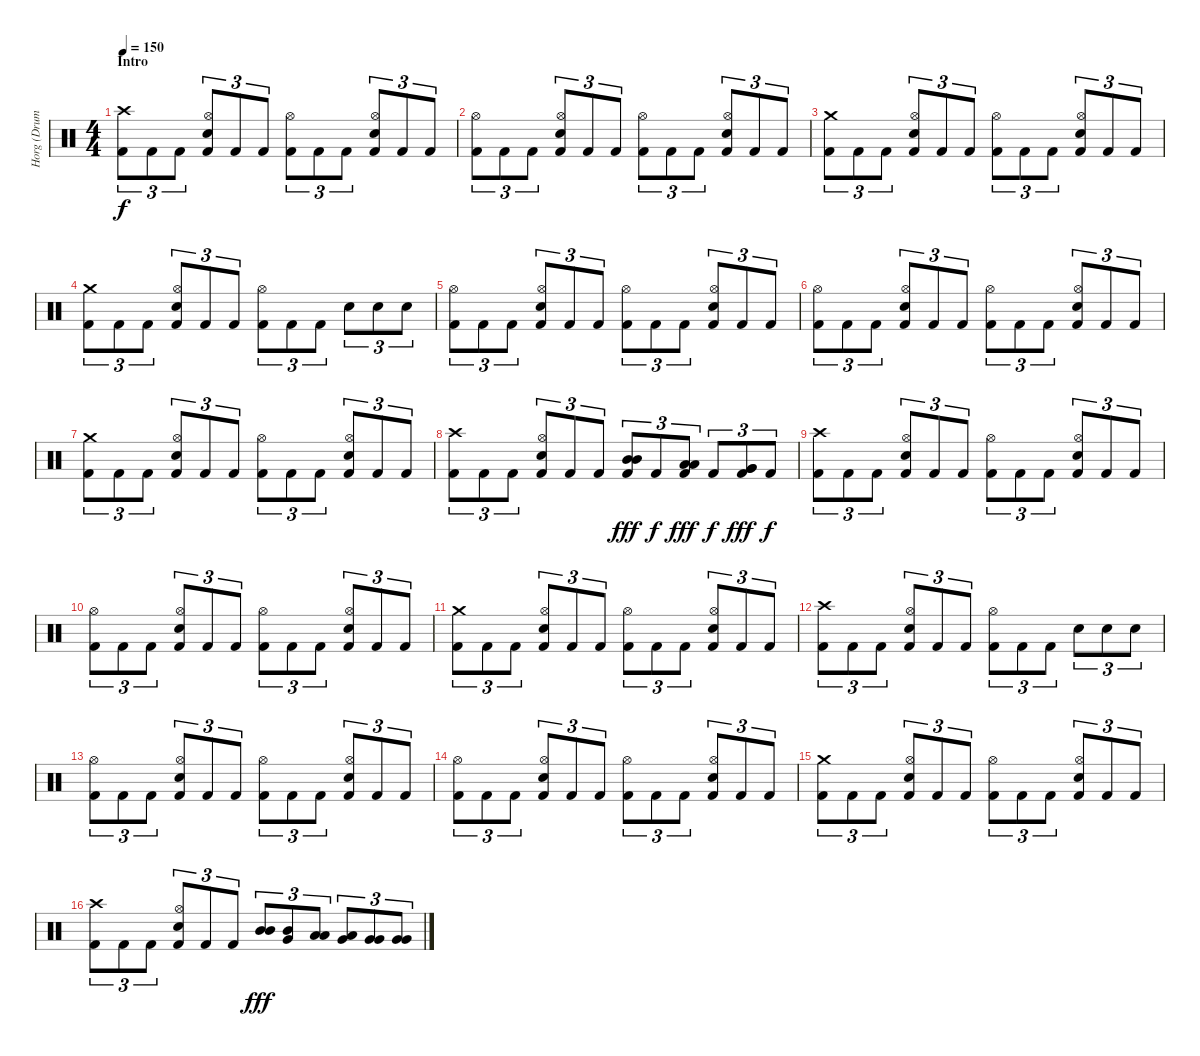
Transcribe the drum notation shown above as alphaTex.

\track ("Horg (Drums)" "Horg (Drum") {instrument percussion}
\staff {score}
\articulation defaults
\ts (4 4)
\section ("" "Intro")
\tempo 150
\clef neutral
\ks c
("Crash high (hit)" "Kick (hit) 2").8{tu (3 2) dy f} "Kick (hit) 2".8{tu (3 2)} "Kick (hit) 2".8{tu (3 2)} ("Hi-Hat (open)" "Electric Snare (hit)" "Kick (hit) 2").8{tu (3 2)} "Kick (hit) 2".8{tu (3 2)} "Kick (hit) 2".8{tu (3 2)} ("Hi-Hat (open)" "Kick (hit) 2").8{tu (3 2)} "Kick (hit) 2".8{tu (3 2)} "Kick (hit) 2".8{tu (3 2)} ("Hi-Hat (open)" "Electric Snare (hit)" "Kick (hit) 2").8{tu (3 2)} "Kick (hit) 2".8{tu (3 2)} "Kick (hit) 2".8{tu (3 2)} |
("Hi-Hat (open)" "Kick (hit) 2").8{tu (3 2)} "Kick (hit) 2".8{tu (3 2)} "Kick (hit) 2".8{tu (3 2)} ("Hi-Hat (open)" "Electric Snare (hit)" "Kick (hit) 2").8{tu (3 2)} "Kick (hit) 2".8{tu (3 2)} "Kick (hit) 2".8{tu (3 2)} ("Hi-Hat (open)" "Kick (hit) 2").8{tu (3 2)} "Kick (hit) 2".8{tu (3 2)} "Kick (hit) 2".8{tu (3 2)} ("Hi-Hat (open)" "Electric Snare (hit)" "Kick (hit) 2").8{tu (3 2)} "Kick (hit) 2".8{tu (3 2)} "Kick (hit) 2".8{tu (3 2)} |
("Crash medium (hit)" "Kick (hit) 2").8{tu (3 2)} "Kick (hit) 2".8{tu (3 2)} "Kick (hit) 2".8{tu (3 2)} ("Hi-Hat (open)" "Electric Snare (hit)" "Kick (hit) 2").8{tu (3 2)} "Kick (hit) 2".8{tu (3 2)} "Kick (hit) 2".8{tu (3 2)} ("Hi-Hat (open)" "Kick (hit) 2").8{tu (3 2)} "Kick (hit) 2".8{tu (3 2)} "Kick (hit) 2".8{tu (3 2)} ("Hi-Hat (open)" "Electric Snare (hit)" "Kick (hit) 2").8{tu (3 2)} "Kick (hit) 2".8{tu (3 2)} "Kick (hit) 2".8{tu (3 2)} |
("Crash medium (hit)" "Kick (hit) 2").8{tu (3 2)} "Kick (hit) 2".8{tu (3 2)} "Kick (hit) 2".8{tu (3 2)} ("Hi-Hat (open)" "Electric Snare (hit)" "Kick (hit) 2").8{tu (3 2)} "Kick (hit) 2".8{tu (3 2)} "Kick (hit) 2".8{tu (3 2)} ("Hi-Hat (open)" "Kick (hit) 2").8{tu (3 2)} "Kick (hit) 2".8{tu (3 2)} "Kick (hit) 2".8{tu (3 2)} "Electric Snare (hit)".8{tu (3 2)} "Electric Snare (hit)".8{tu (3 2)} "Electric Snare (hit)".8{tu (3 2)} |
("Hi-Hat (open)" "Kick (hit) 2").8{tu (3 2)} "Kick (hit) 2".8{tu (3 2)} "Kick (hit) 2".8{tu (3 2)} ("Hi-Hat (open)" "Electric Snare (hit)" "Kick (hit) 2").8{tu (3 2)} "Kick (hit) 2".8{tu (3 2)} "Kick (hit) 2".8{tu (3 2)} ("Hi-Hat (open)" "Kick (hit) 2").8{tu (3 2)} "Kick (hit) 2".8{tu (3 2)} "Kick (hit) 2".8{tu (3 2)} ("Hi-Hat (open)" "Electric Snare (hit)" "Kick (hit) 2").8{tu (3 2)} "Kick (hit) 2".8{tu (3 2)} "Kick (hit) 2".8{tu (3 2)} |
("Hi-Hat (open)" "Kick (hit) 2").8{tu (3 2)} "Kick (hit) 2".8{tu (3 2)} "Kick (hit) 2".8{tu (3 2)} ("Hi-Hat (open)" "Electric Snare (hit)" "Kick (hit) 2").8{tu (3 2)} "Kick (hit) 2".8{tu (3 2)} "Kick (hit) 2".8{tu (3 2)} ("Hi-Hat (open)" "Kick (hit) 2").8{tu (3 2)} "Kick (hit) 2".8{tu (3 2)} "Kick (hit) 2".8{tu (3 2)} ("Hi-Hat (open)" "Electric Snare (hit)" "Kick (hit) 2").8{tu (3 2)} "Kick (hit) 2".8{tu (3 2)} "Kick (hit) 2".8{tu (3 2)} |
("Crash medium (hit)" "Kick (hit) 2").8{tu (3 2)} "Kick (hit) 2".8{tu (3 2)} "Kick (hit) 2".8{tu (3 2)} ("Hi-Hat (open)" "Electric Snare (hit)" "Kick (hit) 2").8{tu (3 2)} "Kick (hit) 2".8{tu (3 2)} "Kick (hit) 2".8{tu (3 2)} ("Hi-Hat (open)" "Kick (hit) 2").8{tu (3 2)} "Kick (hit) 2".8{tu (3 2)} "Kick (hit) 2".8{tu (3 2)} ("Hi-Hat (open)" "Electric Snare (hit)" "Kick (hit) 2").8{tu (3 2)} "Kick (hit) 2".8{tu (3 2)} "Kick (hit) 2".8{tu (3 2)} |
("Crash high (hit)" "Kick (hit) 2").8{tu (3 2)} "Kick (hit) 2".8{tu (3 2)} "Kick (hit) 2".8{tu (3 2)} ("Hi-Hat (open)" "Electric Snare (hit)" "Kick (hit) 2").8{tu (3 2)} "Kick (hit) 2".8{tu (3 2)} "Kick (hit) 2".8{tu (3 2)} ("Mid Tom (hit)" "Mid Tom (hit)" "Kick (hit) 2").8{tu (3 2) dy fff} "Kick (hit) 2".8{tu (3 2) dy f} ("Low Tom (hit)" "Low Tom (hit)" "Kick (hit) 2").8{tu (3 2) dy fff} "Kick (hit) 2".8{tu (3 2) dy f} ("Very Low Tom (hit)" "Very Low Tom (hit)" "Kick (hit) 2").8{tu (3 2) dy fff} "Kick (hit) 2".8{tu (3 2) dy f} |
("Crash high (hit)" "Kick (hit) 2").8{tu (3 2)} "Kick (hit) 2".8{tu (3 2)} "Kick (hit) 2".8{tu (3 2)} ("Hi-Hat (open)" "Electric Snare (hit)" "Kick (hit) 2").8{tu (3 2)} "Kick (hit) 2".8{tu (3 2)} "Kick (hit) 2".8{tu (3 2)} ("Hi-Hat (open)" "Kick (hit) 2").8{tu (3 2)} "Kick (hit) 2".8{tu (3 2)} "Kick (hit) 2".8{tu (3 2)} ("Hi-Hat (open)" "Electric Snare (hit)" "Kick (hit) 2").8{tu (3 2)} "Kick (hit) 2".8{tu (3 2)} "Kick (hit) 2".8{tu (3 2)} |
("Hi-Hat (open)" "Kick (hit) 2").8{tu (3 2)} "Kick (hit) 2".8{tu (3 2)} "Kick (hit) 2".8{tu (3 2)} ("Hi-Hat (open)" "Electric Snare (hit)" "Kick (hit) 2").8{tu (3 2)} "Kick (hit) 2".8{tu (3 2)} "Kick (hit) 2".8{tu (3 2)} ("Hi-Hat (open)" "Kick (hit) 2").8{tu (3 2)} "Kick (hit) 2".8{tu (3 2)} "Kick (hit) 2".8{tu (3 2)} ("Hi-Hat (open)" "Electric Snare (hit)" "Kick (hit) 2").8{tu (3 2)} "Kick (hit) 2".8{tu (3 2)} "Kick (hit) 2".8{tu (3 2)} |
("Crash medium (hit)" "Kick (hit) 2").8{tu (3 2)} "Kick (hit) 2".8{tu (3 2)} "Kick (hit) 2".8{tu (3 2)} ("Hi-Hat (open)" "Electric Snare (hit)" "Kick (hit) 2").8{tu (3 2)} "Kick (hit) 2".8{tu (3 2)} "Kick (hit) 2".8{tu (3 2)} ("Hi-Hat (open)" "Kick (hit) 2").8{tu (3 2)} "Kick (hit) 2".8{tu (3 2)} "Kick (hit) 2".8{tu (3 2)} ("Hi-Hat (open)" "Electric Snare (hit)" "Kick (hit) 2").8{tu (3 2)} "Kick (hit) 2".8{tu (3 2)} "Kick (hit) 2".8{tu (3 2)} |
("Crash high (hit)" "Kick (hit) 2").8{tu (3 2)} "Kick (hit) 2".8{tu (3 2)} "Kick (hit) 2".8{tu (3 2)} ("Hi-Hat (open)" "Electric Snare (hit)" "Kick (hit) 2").8{tu (3 2)} "Kick (hit) 2".8{tu (3 2)} "Kick (hit) 2".8{tu (3 2)} ("Hi-Hat (open)" "Kick (hit) 2").8{tu (3 2)} "Kick (hit) 2".8{tu (3 2)} "Kick (hit) 2".8{tu (3 2)} "Electric Snare (hit)".8{tu (3 2)} "Electric Snare (hit)".8{tu (3 2)} "Electric Snare (hit)".8{tu (3 2)} |
("Hi-Hat (open)" "Kick (hit) 2").8{tu (3 2)} "Kick (hit) 2".8{tu (3 2)} "Kick (hit) 2".8{tu (3 2)} ("Hi-Hat (open)" "Electric Snare (hit)" "Kick (hit) 2").8{tu (3 2)} "Kick (hit) 2".8{tu (3 2)} "Kick (hit) 2".8{tu (3 2)} ("Hi-Hat (open)" "Kick (hit) 2").8{tu (3 2)} "Kick (hit) 2".8{tu (3 2)} "Kick (hit) 2".8{tu (3 2)} ("Hi-Hat (open)" "Electric Snare (hit)" "Kick (hit) 2").8{tu (3 2)} "Kick (hit) 2".8{tu (3 2)} "Kick (hit) 2".8{tu (3 2)} |
("Hi-Hat (open)" "Kick (hit) 2").8{tu (3 2)} "Kick (hit) 2".8{tu (3 2)} "Kick (hit) 2".8{tu (3 2)} ("Hi-Hat (open)" "Electric Snare (hit)" "Kick (hit) 2").8{tu (3 2)} "Kick (hit) 2".8{tu (3 2)} "Kick (hit) 2".8{tu (3 2)} ("Hi-Hat (open)" "Kick (hit) 2").8{tu (3 2)} "Kick (hit) 2".8{tu (3 2)} "Kick (hit) 2".8{tu (3 2)} ("Hi-Hat (open)" "Electric Snare (hit)" "Kick (hit) 2").8{tu (3 2)} "Kick (hit) 2".8{tu (3 2)} "Kick (hit) 2".8{tu (3 2)} |
("Crash medium (hit)" "Kick (hit) 2").8{tu (3 2)} "Kick (hit) 2".8{tu (3 2)} "Kick (hit) 2".8{tu (3 2)} ("Hi-Hat (open)" "Electric Snare (hit)" "Kick (hit) 2").8{tu (3 2)} "Kick (hit) 2".8{tu (3 2)} "Kick (hit) 2".8{tu (3 2)} ("Hi-Hat (open)" "Kick (hit) 2").8{tu (3 2)} "Kick (hit) 2".8{tu (3 2)} "Kick (hit) 2".8{tu (3 2)} ("Hi-Hat (open)" "Electric Snare (hit)" "Kick (hit) 2").8{tu (3 2)} "Kick (hit) 2".8{tu (3 2)} "Kick (hit) 2".8{tu (3 2)} |
("Crash high (hit)" "Kick (hit) 2").8{tu (3 2)} "Kick (hit) 2".8{tu (3 2)} "Kick (hit) 2".8{tu (3 2)} ("Hi-Hat (open)" "Electric Snare (hit)" "Kick (hit) 2").8{tu (3 2)} "Kick (hit) 2".8{tu (3 2)} "Kick (hit) 2".8{tu (3 2)} ("Mid Tom (hit)" "Mid Tom (hit)").8{tu (3 2) dy fff} ("Very Low Tom (hit)" "Mid Tom (hit)").8{tu (3 2)} ("Low Tom (hit)" "Low Tom (hit)").8{tu (3 2)} ("Very Low Tom (hit)" "Low Tom (hit)").8{tu (3 2)} ("Very Low Tom (hit)" "Very Low Tom (hit)").8{tu (3 2)} ("Very Low Tom (hit)" "Very Low Tom (hit)").8{tu (3 2)}
